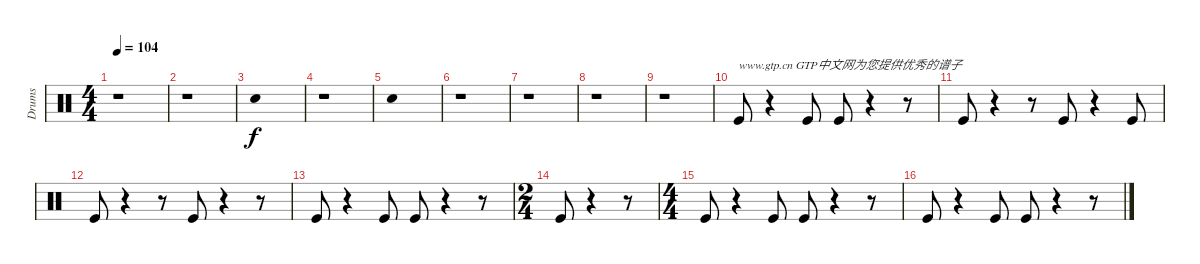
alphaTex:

\track ("Drums" "Drums") {instrument percussion}
\staff {score}
\articulation defaults
\ts (4 4)
\tempo 104
\clef neutral
\ks c
r.1{dy f} |
r.1 |
"Metronome (bell)".1 |
r.1 |
"Metronome (bell)".1 |
r.1 |
r.1 |
r.1 |
r.1 |
"Kick (hit)".8{txt "www.gtp.cn GTP中文网为您提供优秀的谱子"} r.4 "Kick (hit)".8 "Kick (hit)".8 r.4 r.8 |
"Kick (hit)".8 r.4 r.8 "Kick (hit)".8 r.4 "Kick (hit)".8 |
"Kick (hit)".8 r.4 r.8 "Kick (hit)".8 r.4 r.8 |
"Kick (hit)".8 r.4 "Kick (hit)".8 "Kick (hit)".8 r.4 r.8 |
\ts (2 4)
"Kick (hit)".8 r.4 r.8 |
\ts (4 4)
"Kick (hit)".8 r.4 "Kick (hit)".8 "Kick (hit)".8 r.4 r.8 |
"Kick (hit)".8 r.4 "Kick (hit)".8 "Kick (hit)".8 r.4 r.8
